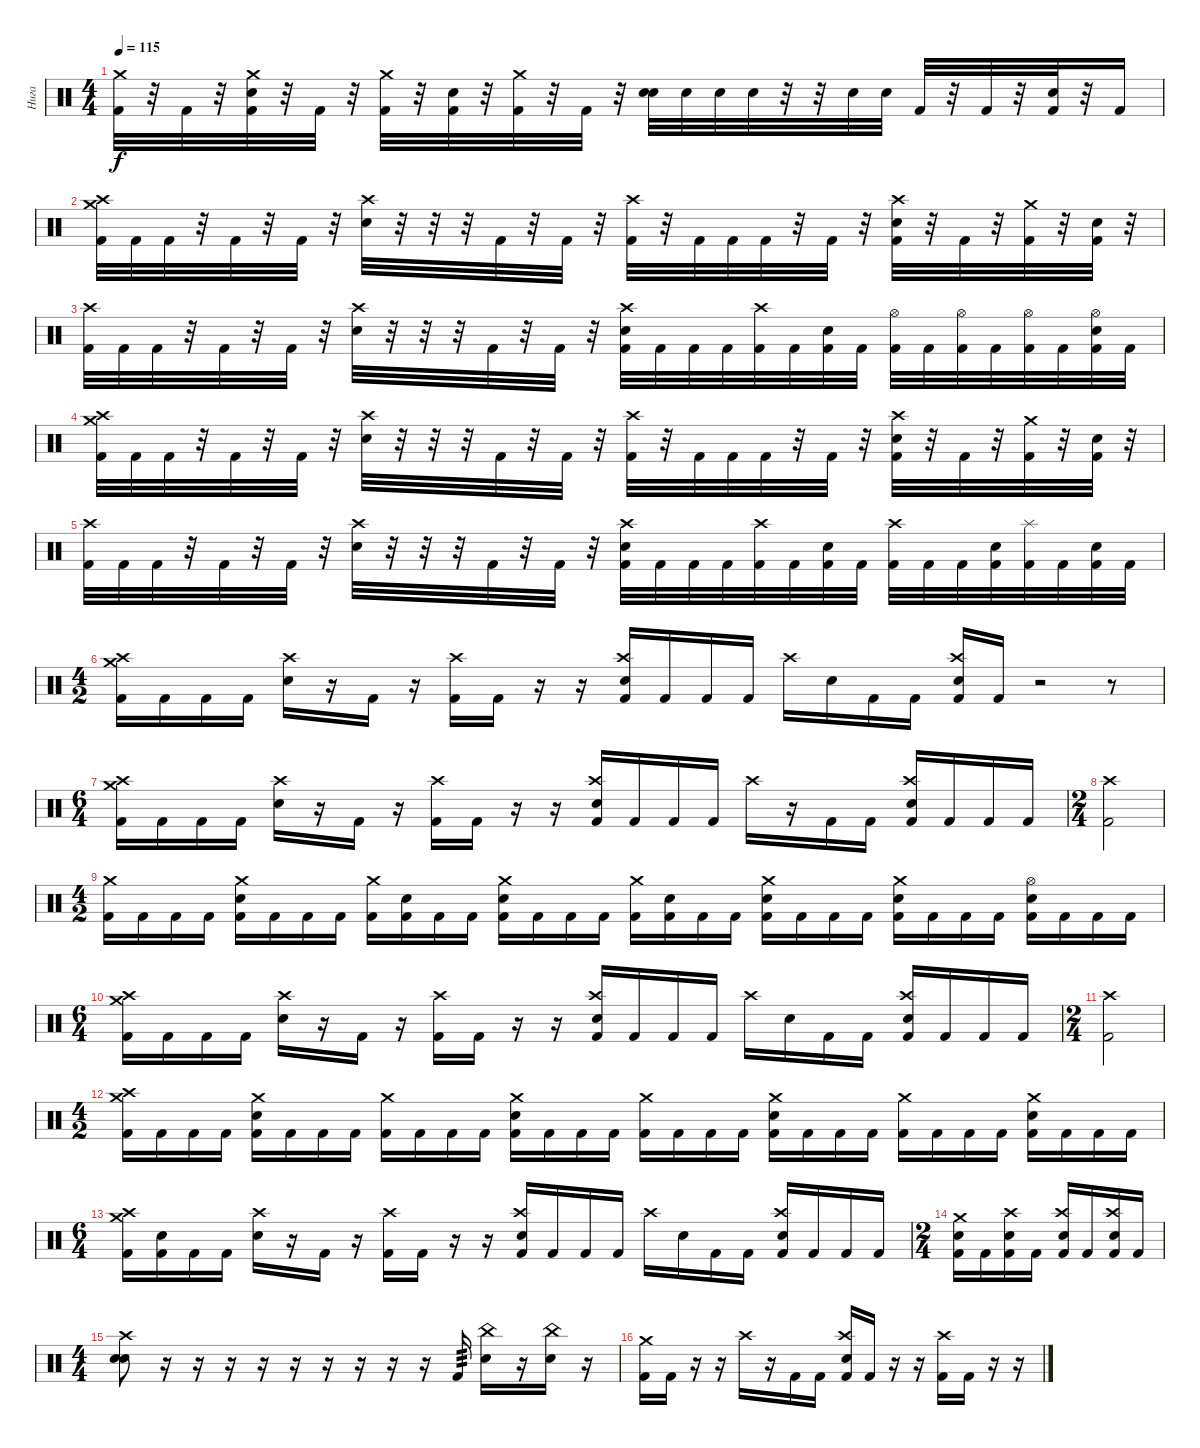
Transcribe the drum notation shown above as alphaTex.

\track ("Нига" "Нига") {instrument percussion}
\staff {score}
\articulation defaults
\ts (4 4)
\tempo 115
\clef neutral
\ks c
("Crash medium (hit)" "Kick (hit) 2").32{dy f} r.32 "Kick (hit) 2".32 r.32 ("Crash medium (hit)" "Snare (hit) 2" "Kick (hit) 2").32 r.32 "Kick (hit) 2".32 r.32 ("Crash medium (hit)" "Kick (hit) 2").32 r.32 ("Snare (hit) 2" "Kick (hit) 2").32 r.32 ("Crash medium (hit)" "Kick (hit) 2").32 r.32 "Kick (hit) 2".32 r.32 ("Snare (hit) 2" "Snare (hit) 2").32 "Snare (hit) 2".32 "Snare (hit) 2".32 "Snare (hit) 2".32 r.32 r.32 "Snare (hit) 2".32 "Snare (hit) 2".32 "Kick (hit) 2".32 r.32 "Kick (hit) 2".32 r.32 ("Snare (hit) 2" "Kick (hit) 2").32 r.32 "Kick (hit) 2".16 |
("Crash high (hit)" "Crash medium (hit)" "Kick (hit) 2").32 "Kick (hit) 2".32 "Kick (hit) 2".32 r.32 "Kick (hit) 2".32 r.32 "Kick (hit) 2".32 r.32 ("Crash high (hit)" "Electric Snare (hit)").32 r.32 r.32 r.32 "Kick (hit) 2".32 r.32 "Kick (hit) 2".32 r.32 ("Crash high (hit)" "Kick (hit) 2").32 r.32 "Kick (hit) 2".32 "Kick (hit) 2".32 "Kick (hit) 2".32 r.32 "Kick (hit) 2".32 r.32 ("Crash high (hit)" "Electric Snare (hit)" "Kick (hit) 2").32 r.32 "Kick (hit) 2".32 r.32 ("Crash medium (hit)" "Kick (hit) 2").32 r.32 ("Electric Snare (hit)" "Kick (hit) 2").32 r.32 |
("Crash high (hit)" "Kick (hit) 2").32 "Kick (hit) 2".32 "Kick (hit) 2".32 r.32 "Kick (hit) 2".32 r.32 "Kick (hit) 2".32 r.32 ("Crash high (hit)" "Electric Snare (hit)").32 r.32 r.32 r.32 "Kick (hit) 2".32 r.32 "Kick (hit) 2".32 r.32 ("Crash high (hit)" "Electric Snare (hit)" "Kick (hit) 2").32 "Kick (hit) 2".32 "Kick (hit) 2".32 "Kick (hit) 2".32 ("Crash high (hit)" "Kick (hit) 2").32 "Kick (hit) 2".32 ("Electric Snare (hit)" "Kick (hit) 2").32 "Kick (hit) 2".32 ("Hi-Hat (open)" "Kick (hit) 2").32 "Kick (hit) 2".32 ("Hi-Hat (open)" "Kick (hit) 2").32 "Kick (hit) 2".32 ("Hi-Hat (open)" "Kick (hit) 2").32 "Kick (hit) 2".32 ("Hi-Hat (open)" "Electric Snare (hit)" "Kick (hit) 2").32 "Kick (hit) 2".32 |
("Crash high (hit)" "Crash medium (hit)" "Kick (hit) 2").32 "Kick (hit) 2".32 "Kick (hit) 2".32 r.32 "Kick (hit) 2".32 r.32 "Kick (hit) 2".32 r.32 ("Crash high (hit)" "Electric Snare (hit)").32 r.32 r.32 r.32 "Kick (hit) 2".32 r.32 "Kick (hit) 2".32 r.32 ("Crash high (hit)" "Kick (hit) 2").32 r.32 "Kick (hit) 2".32 "Kick (hit) 2".32 "Kick (hit) 2".32 r.32 "Kick (hit) 2".32 r.32 ("Crash high (hit)" "Electric Snare (hit)" "Kick (hit) 2").32 r.32 "Kick (hit) 2".32 r.32 ("Crash medium (hit)" "Kick (hit) 2").32 r.32 ("Electric Snare (hit)" "Kick (hit) 2").32 r.32 |
("Crash high (hit)" "Kick (hit) 2").32 "Kick (hit) 2".32 "Kick (hit) 2".32 r.32 "Kick (hit) 2".32 r.32 "Kick (hit) 2".32 r.32 ("Crash high (hit)" "Electric Snare (hit)").32 r.32 r.32 r.32 "Kick (hit) 2".32 r.32 "Kick (hit) 2".32 r.32 ("Crash high (hit)" "Electric Snare (hit)" "Kick (hit) 2").32 "Kick (hit) 2".32 "Kick (hit) 2".32 "Kick (hit) 2".32 ("Crash high (hit)" "Kick (hit) 2").32 "Kick (hit) 2".32 ("Electric Snare (hit)" "Kick (hit) 2").32 "Kick (hit) 2".32 ("Crash high (hit)" "Kick (hit) 2").32 "Kick (hit) 2".32 "Kick (hit) 2".32 ("Electric Snare (hit)" "Kick (hit) 2").32 ("Splash (hit)" "Kick (hit) 2").32 "Kick (hit) 2".32 ("Electric Snare (hit)" "Kick (hit) 2").32 "Kick (hit) 2".32 |
\ts (4 2)
("Crash medium (hit)" "Crash high (hit)" "Kick (hit) 2").16 "Kick (hit) 2".16 "Kick (hit) 2".16 "Kick (hit) 2".16 ("Crash high (hit)" "Electric Snare (hit)").16 r.16 "Kick (hit) 2".16 r.16 ("Crash high (hit)" "Kick (hit) 2").16 "Kick (hit) 2".16 r.16 r.16 ("Crash high (hit)" "Electric Snare (hit)" "Kick (hit) 2").16 "Kick (hit) 2".16 "Kick (hit) 2".16 "Kick (hit) 2".16 "Crash high (hit)".16 "Electric Snare (hit)".16 "Kick (hit) 2".16 "Kick (hit) 2".16 ("Crash high (hit)" "Electric Snare (hit)" "Kick (hit) 2").16 "Kick (hit) 2".16 r.2 r.8 |
\ts (6 4)
("Crash medium (hit)" "Crash high (hit)" "Kick (hit) 2").16 "Kick (hit) 2".16 "Kick (hit) 2".16 "Kick (hit) 2".16 ("Crash high (hit)" "Electric Snare (hit)").16 r.16 "Kick (hit) 2".16 r.16 ("Crash high (hit)" "Kick (hit) 2").16 "Kick (hit) 2".16 r.16 r.16 ("Crash high (hit)" "Electric Snare (hit)" "Kick (hit) 2").16 "Kick (hit) 2".16 "Kick (hit) 2".16 "Kick (hit) 2".16 "Crash high (hit)".16 r.16 "Kick (hit) 2".16 "Kick (hit) 2".16 ("Crash high (hit)" "Electric Snare (hit)" "Kick (hit) 2").16 "Kick (hit) 2".16 "Kick (hit) 2".16 "Kick (hit) 2".16 |
\ts (2 4)
("Crash high (hit)" "Kick (hit) 2").2 |
\ts (4 2)
("Crash medium (hit)" "Kick (hit) 2").16 "Kick (hit) 2".16 "Kick (hit) 2".16 "Kick (hit) 2".16 ("Crash medium (hit)" "Electric Snare (hit)" "Kick (hit) 2").16 "Kick (hit) 2".16 "Kick (hit) 2".16 "Kick (hit) 2".16 ("Crash medium (hit)" "Kick (hit) 2").16 ("Electric Snare (hit)" "Kick (hit) 2").16 "Kick (hit) 2".16 "Kick (hit) 2".16 ("Crash medium (hit)" "Electric Snare (hit)" "Kick (hit) 2").16 "Kick (hit) 2".16 "Kick (hit) 2".16 "Kick (hit) 2".16 ("Crash medium (hit)" "Kick (hit) 2").16 ("Electric Snare (hit)" "Kick (hit) 2").16 "Kick (hit) 2".16 "Kick (hit) 2".16 ("Crash medium (hit)" "Electric Snare (hit)" "Kick (hit) 2").16 "Kick (hit) 2".16 "Kick (hit) 2".16 "Kick (hit) 2".16 ("Crash medium (hit)" "Electric Snare (hit)" "Kick (hit) 2").16 "Kick (hit) 2".16 "Kick (hit) 2".16 "Kick (hit) 2".16 ("Hi-Hat (open)" "Electric Snare (hit)" "Kick (hit) 2").16 "Kick (hit) 2".16 "Kick (hit) 2".16 "Kick (hit) 2".16 |
\ts (6 4)
("Crash medium (hit)" "Crash high (hit)" "Kick (hit) 2").16 "Kick (hit) 2".16 "Kick (hit) 2".16 "Kick (hit) 2".16 ("Crash high (hit)" "Electric Snare (hit)").16 r.16 "Kick (hit) 2".16 r.16 ("Crash high (hit)" "Kick (hit) 2").16 "Kick (hit) 2".16 r.16 r.16 ("Crash high (hit)" "Electric Snare (hit)" "Kick (hit) 2").16 "Kick (hit) 2".16 "Kick (hit) 2".16 "Kick (hit) 2".16 "Crash high (hit)".16 "Electric Snare (hit)".16 "Kick (hit) 2".16 "Kick (hit) 2".16 ("Crash high (hit)" "Electric Snare (hit)" "Kick (hit) 2").16 "Kick (hit) 2".16 "Kick (hit) 2".16 "Kick (hit) 2".16 |
\ts (2 4)
("Crash high (hit)" "Kick (hit) 2").2 |
\ts (4 2)
("Crash medium (hit)" "Crash high (hit)" "Kick (hit) 2").16 "Kick (hit) 2".16 "Kick (hit) 2".16 "Kick (hit) 2".16 ("Crash medium (hit)" "Electric Snare (hit)" "Kick (hit) 2").16 "Kick (hit) 2".16 "Kick (hit) 2".16 "Kick (hit) 2".16 ("Crash medium (hit)" "Kick (hit) 2").16 "Kick (hit) 2".16 "Kick (hit) 2".16 "Kick (hit) 2".16 ("Crash medium (hit)" "Electric Snare (hit)" "Kick (hit) 2").16 "Kick (hit) 2".16 "Kick (hit) 2".16 "Kick (hit) 2".16 ("Crash medium (hit)" "Kick (hit) 2").16 "Kick (hit) 2".16 "Kick (hit) 2".16 "Kick (hit) 2".16 ("Crash medium (hit)" "Electric Snare (hit)" "Kick (hit) 2").16 "Kick (hit) 2".16 "Kick (hit) 2".16 "Kick (hit) 2".16 ("Crash medium (hit)" "Kick (hit) 2").16 "Kick (hit) 2".16 "Kick (hit) 2".16 "Kick (hit) 2".16 ("Crash medium (hit)" "Electric Snare (hit)" "Kick (hit) 2").16 "Kick (hit) 2".16 "Kick (hit) 2".16 "Kick (hit) 2".16 |
\ts (6 4)
("Crash medium (hit)" "Crash high (hit)" "Kick (hit) 2").16 ("Electric Snare (hit)" "Kick (hit) 2").16 "Kick (hit) 2".16 "Kick (hit) 2".16 ("Crash high (hit)" "Electric Snare (hit)").16 r.16 "Kick (hit) 2".16 r.16 ("Crash high (hit)" "Kick (hit) 2").16 "Kick (hit) 2".16 r.16 r.16 ("Crash high (hit)" "Electric Snare (hit)" "Kick (hit) 2").16 "Kick (hit) 2".16 "Kick (hit) 2".16 "Kick (hit) 2".16 "Crash high (hit)".16 "Electric Snare (hit)".16 "Kick (hit) 2".16 "Kick (hit) 2".16 ("Crash high (hit)" "Electric Snare (hit)" "Kick (hit) 2").16 "Kick (hit) 2".16 "Kick (hit) 2".16 "Kick (hit) 2".16 |
\ts (2 4)
("Crash medium (hit)" "Electric Snare (hit)" "Kick (hit) 2").16 "Kick (hit) 2".16 ("Crash high (hit)" "Electric Snare (hit)" "Kick (hit) 2").16 "Kick (hit) 2".16 ("Crash high (hit)" "Electric Snare (hit)" "Kick (hit) 2").16 "Kick (hit) 2".16 ("Crash high (hit)" "Electric Snare (hit)" "Kick (hit) 2").16 "Kick (hit) 2".16 |
\ts (4 4)
("Crash high (hit)" "Electric Snare (hit)" "Snare (hit) 2").8 r.16 r.16 r.16 r.16 r.16 r.16 r.16 r.16 r.16 "Kick (hit) 2".16{tp 3} ("China (hit)" "Electric Snare (hit)").16 r.16 ("China (hit)" "Electric Snare (hit)").16 r.16 |
("Crash medium (hit)" "Kick (hit) 2").16 "Kick (hit) 2".16 r.16 r.16 "Crash high (hit)".16 r.16 "Kick (hit) 2".16 "Kick (hit) 2".16 ("Crash high (hit)" "Electric Snare (hit)" "Kick (hit) 2").16 "Kick (hit) 2".16 r.16 r.16 ("Crash high (hit)" "Kick (hit) 2").16 "Kick (hit) 2".16 r.16 r.16
